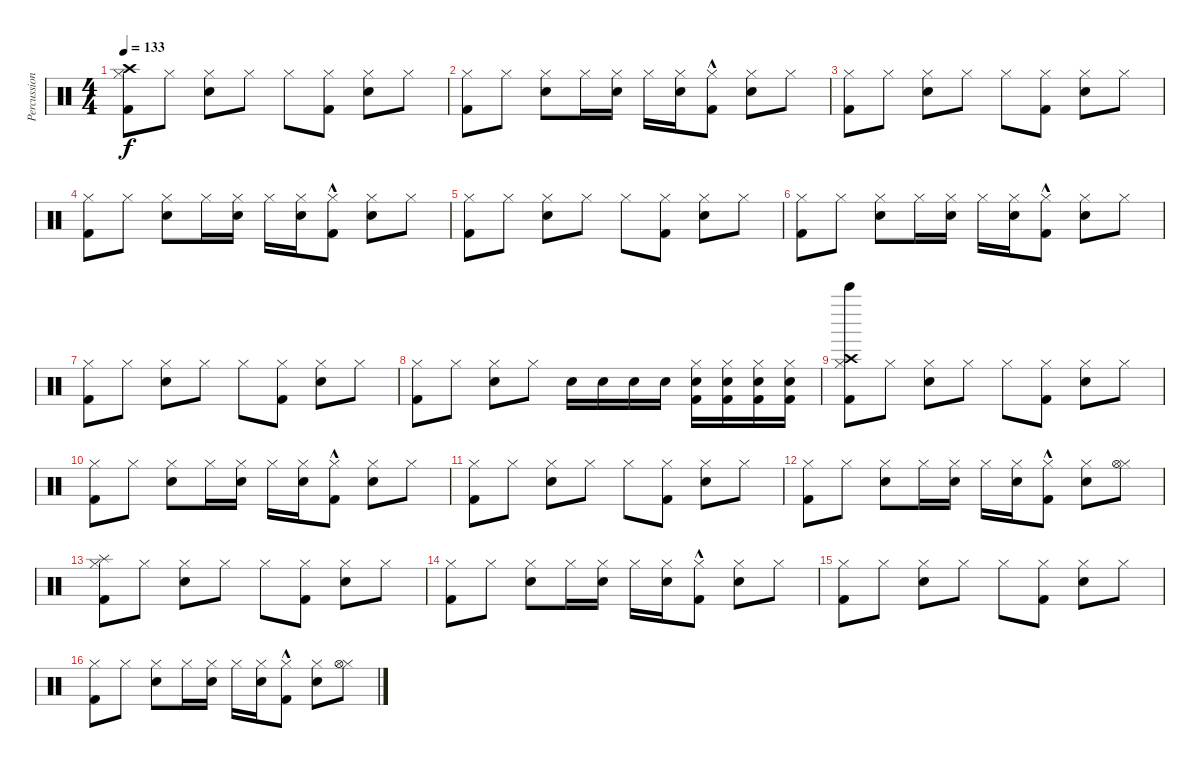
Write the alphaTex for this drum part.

\track ("Percussion" "Percussion") {instrument percussion}
\staff {score}
\articulation defaults
\ts (4 4)
\tempo 133
\clef neutral
\ks c
("Hi-Hat (closed)" "Crash high (hit)" "Kick (hit) 2").8{dy f} "Hi-Hat (closed)".8 ("Hi-Hat (closed)" "Snare (hit) 2").8 "Hi-Hat (closed)".8 "Hi-Hat (closed)".8 ("Hi-Hat (closed)" "Kick (hit) 2").8 ("Hi-Hat (closed)" "Snare (hit) 2").8 "Hi-Hat (closed)".8 |
("Hi-Hat (closed)" "Kick (hit) 2").8 "Hi-Hat (closed)".8 ("Hi-Hat (closed)" "Snare (hit) 2").8 "Hi-Hat (closed)".16 ("Hi-Hat (closed)" "Snare (hit) 2").16 "Hi-Hat (closed)".16 ("Hi-Hat (closed)" "Snare (hit) 2").16 ("Hi-Hat (closed)" "Kick (hit) 2"{hac}).8 ("Hi-Hat (closed)" "Snare (hit) 2").8 "Hi-Hat (closed)".8 |
("Hi-Hat (closed)" "Kick (hit) 2").8 "Hi-Hat (closed)".8 ("Hi-Hat (closed)" "Snare (hit) 2").8 "Hi-Hat (closed)".8 "Hi-Hat (closed)".8 ("Hi-Hat (closed)" "Kick (hit) 2").8 ("Hi-Hat (closed)" "Snare (hit) 2").8 "Hi-Hat (closed)".8 |
("Hi-Hat (closed)" "Kick (hit) 2").8 "Hi-Hat (closed)".8 ("Hi-Hat (closed)" "Snare (hit) 2").8 "Hi-Hat (closed)".16 ("Hi-Hat (closed)" "Snare (hit) 2").16 "Hi-Hat (closed)".16 ("Hi-Hat (closed)" "Snare (hit) 2").16 ("Hi-Hat (closed)" "Kick (hit) 2"{hac}).8 ("Hi-Hat (closed)" "Snare (hit) 2").8 "Hi-Hat (closed)".8 |
("Hi-Hat (closed)" "Kick (hit) 2").8 "Hi-Hat (closed)".8 ("Hi-Hat (closed)" "Snare (hit) 2").8 "Hi-Hat (closed)".8 "Hi-Hat (closed)".8 ("Hi-Hat (closed)" "Kick (hit) 2").8 ("Hi-Hat (closed)" "Snare (hit) 2").8 "Hi-Hat (closed)".8 |
("Hi-Hat (closed)" "Kick (hit) 2").8 "Hi-Hat (closed)".8 ("Hi-Hat (closed)" "Snare (hit) 2").8 "Hi-Hat (closed)".16 ("Hi-Hat (closed)" "Snare (hit) 2").16 "Hi-Hat (closed)".16 ("Hi-Hat (closed)" "Snare (hit) 2").16 ("Hi-Hat (closed)" "Kick (hit) 2"{hac}).8 ("Hi-Hat (closed)" "Snare (hit) 2").8 "Hi-Hat (closed)".8 |
("Hi-Hat (closed)" "Kick (hit) 2").8 "Hi-Hat (closed)".8 ("Hi-Hat (closed)" "Snare (hit) 2").8 "Hi-Hat (closed)".8 "Hi-Hat (closed)".8 ("Hi-Hat (closed)" "Kick (hit) 2").8 ("Hi-Hat (closed)" "Snare (hit) 2").8 "Hi-Hat (closed)".8 |
("Hi-Hat (closed)" "Kick (hit) 2").8 "Hi-Hat (closed)".8 ("Hi-Hat (closed)" "Snare (hit) 2").8 "Hi-Hat (closed)".8 "Snare (hit) 2".16 "Snare (hit) 2".16 "Snare (hit) 2".16 "Snare (hit) 2".16 ("Hi-Hat (closed)" "Snare (hit) 2" "Kick (hit) 2").16 ("Hi-Hat (closed)" "Snare (hit) 2" "Kick (hit) 2").16 ("Hi-Hat (closed)" "Snare (hit) 2" "Kick (hit) 2").16 ("Hi-Hat (closed)" "Snare (hit) 2" "Kick (hit) 2").16 |
("Hi-Hat (closed)" "Bell Tree (hit)" "Crash high (hit)" "Kick (hit) 2").8 "Hi-Hat (closed)".8 ("Hi-Hat (closed)" "Snare (hit) 2").8 "Hi-Hat (closed)".8 "Hi-Hat (closed)".8 ("Hi-Hat (closed)" "Kick (hit) 2").8 ("Hi-Hat (closed)" "Snare (hit) 2").8 "Hi-Hat (closed)".8 |
("Hi-Hat (closed)" "Kick (hit) 2").8 "Hi-Hat (closed)".8 ("Hi-Hat (closed)" "Snare (hit) 2").8 "Hi-Hat (closed)".16 ("Hi-Hat (closed)" "Snare (hit) 2").16 "Hi-Hat (closed)".16 ("Hi-Hat (closed)" "Snare (hit) 2").16 ("Hi-Hat (closed)" "Kick (hit) 2"{hac}).8 ("Hi-Hat (closed)" "Snare (hit) 2").8 "Hi-Hat (closed)".8 |
("Hi-Hat (closed)" "Kick (hit) 2").8 "Hi-Hat (closed)".8 ("Hi-Hat (closed)" "Snare (hit) 2").8 "Hi-Hat (closed)".8 "Hi-Hat (closed)".8 ("Hi-Hat (closed)" "Kick (hit) 2").8 ("Hi-Hat (closed)" "Snare (hit) 2").8 "Hi-Hat (closed)".8 |
("Hi-Hat (closed)" "Kick (hit) 2").8 "Hi-Hat (closed)".8 ("Hi-Hat (closed)" "Snare (hit) 2").8 "Hi-Hat (closed)".16 ("Hi-Hat (closed)" "Snare (hit) 2").16 "Hi-Hat (closed)".16 ("Hi-Hat (closed)" "Snare (hit) 2").16 ("Hi-Hat (closed)" "Kick (hit) 2"{hac}).8 ("Hi-Hat (closed)" "Snare (hit) 2").8 ("Hi-Hat (closed)" "Hi-Hat (open)").8 |
("Hi-Hat (closed)" "Splash (hit)" "Kick (hit) 2").8 "Hi-Hat (closed)".8 ("Hi-Hat (closed)" "Snare (hit) 2").8 "Hi-Hat (closed)".8 "Hi-Hat (closed)".8 ("Hi-Hat (closed)" "Kick (hit) 2").8 ("Hi-Hat (closed)" "Snare (hit) 2").8 "Hi-Hat (closed)".8 |
("Hi-Hat (closed)" "Kick (hit) 2").8 "Hi-Hat (closed)".8 ("Hi-Hat (closed)" "Snare (hit) 2").8 "Hi-Hat (closed)".16 ("Hi-Hat (closed)" "Snare (hit) 2").16 "Hi-Hat (closed)".16 ("Hi-Hat (closed)" "Snare (hit) 2").16 ("Hi-Hat (closed)" "Kick (hit) 2"{hac}).8 ("Hi-Hat (closed)" "Snare (hit) 2").8 "Hi-Hat (closed)".8 |
("Hi-Hat (closed)" "Kick (hit) 2").8 "Hi-Hat (closed)".8 ("Hi-Hat (closed)" "Snare (hit) 2").8 "Hi-Hat (closed)".8 "Hi-Hat (closed)".8 ("Hi-Hat (closed)" "Kick (hit) 2").8 ("Hi-Hat (closed)" "Snare (hit) 2").8 "Hi-Hat (closed)".8 |
("Hi-Hat (closed)" "Kick (hit) 2").8 "Hi-Hat (closed)".8 ("Hi-Hat (closed)" "Snare (hit) 2").8 "Hi-Hat (closed)".16 ("Hi-Hat (closed)" "Snare (hit) 2").16 "Hi-Hat (closed)".16 ("Hi-Hat (closed)" "Snare (hit) 2").16 ("Hi-Hat (closed)" "Kick (hit) 2"{hac}).8 ("Hi-Hat (closed)" "Snare (hit) 2").8 ("Hi-Hat (closed)" "Hi-Hat (open)").8
